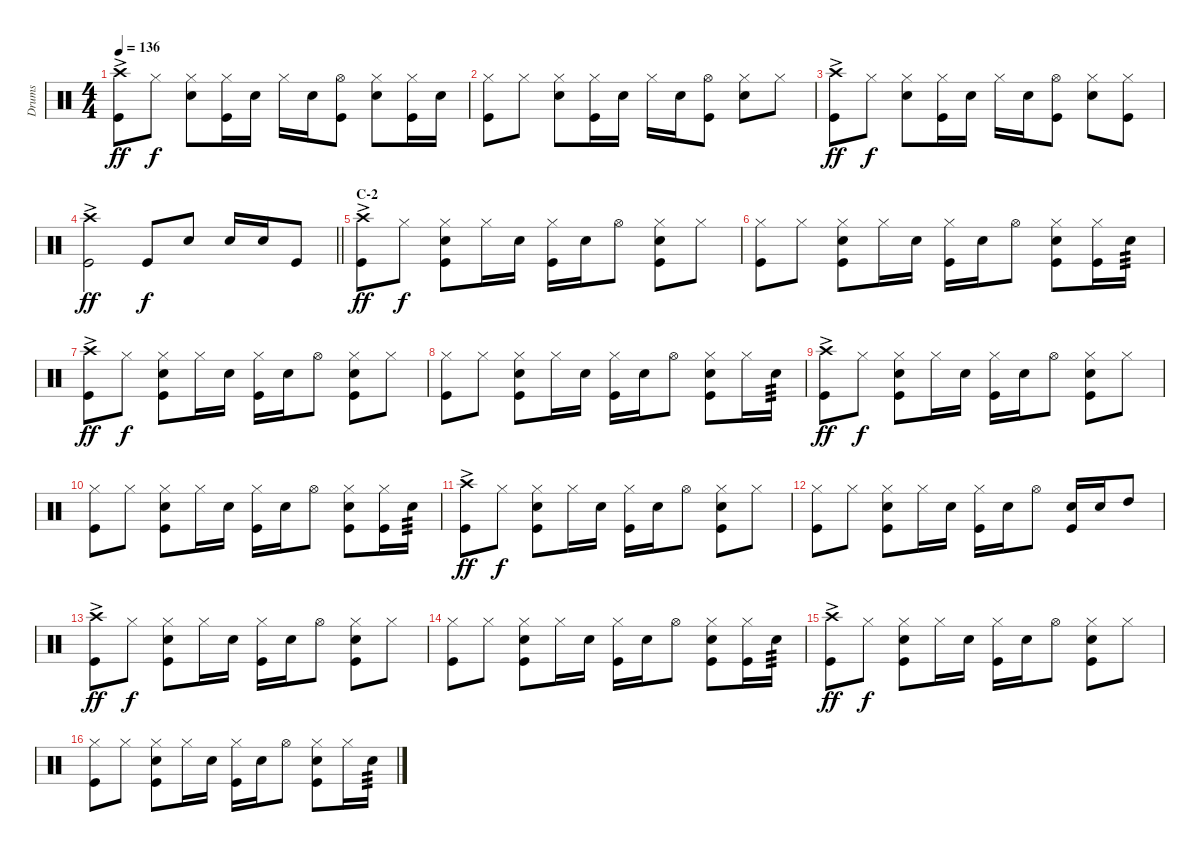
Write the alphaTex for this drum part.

\track ("Drums" "Drums") {instrument percussion}
\staff {score}
\articulation defaults
\ts (4 4)
\tempo 136
\clef neutral
\ks c
("Crash high (hit)"{ac} "Kick (hit)").8{dy ff} "Hi-Hat (closed)".8{dy f} ("Hi-Hat (closed)" "Snare (hit) 2").8 ("Hi-Hat (closed)" "Kick (hit)").16 "Snare (hit) 2".16 "Hi-Hat (closed)".16 "Snare (hit) 2".16 ("Hi-Hat (open)" "Kick (hit)").8 ("Hi-Hat (closed)" "Snare (hit) 2").8 ("Hi-Hat (closed)" "Kick (hit)").16 "Snare (hit) 2".16 |
("Hi-Hat (closed)" "Kick (hit)").8 "Hi-Hat (closed)".8 ("Hi-Hat (closed)" "Snare (hit) 2").8 ("Hi-Hat (closed)" "Kick (hit)").16 "Snare (hit) 2".16 "Hi-Hat (closed)".16 "Snare (hit) 2".16 ("Hi-Hat (open)" "Kick (hit)").8 ("Hi-Hat (closed)" "Snare (hit) 2").8 "Hi-Hat (closed)".8 |
("Crash high (hit)"{ac} "Kick (hit)").8{dy ff} "Hi-Hat (closed)".8{dy f} ("Hi-Hat (closed)" "Snare (hit) 2").8 ("Hi-Hat (closed)" "Kick (hit)").16 "Snare (hit) 2".16 "Hi-Hat (closed)".16 "Snare (hit) 2".16 ("Hi-Hat (open)" "Kick (hit)").8 ("Hi-Hat (closed)" "Snare (hit) 2").8 ("Hi-Hat (closed)" "Kick (hit)").8 |
\barLineRight lightlight
("Crash high (hit)"{ac} "Kick (hit)").2{dy ff} "Kick (hit)".8{dy f} "Snare (hit) 2".8 "Snare (hit) 2".16 "Snare (hit) 2".16 "Kick (hit)".8 |
\section ("" "C-2")
("Crash high (hit)"{ac} "Kick (hit)").8{dy ff} "Hi-Hat (closed)".8{dy f} ("Hi-Hat (closed)" "Snare (hit) 2" "Kick (hit)").8 "Hi-Hat (closed)".16 "Snare (hit) 2".16 ("Hi-Hat (closed)" "Kick (hit)").16 "Snare (hit) 2".16 "Hi-Hat (open)".8 ("Hi-Hat (closed)" "Snare (hit) 2" "Kick (hit)").8 "Hi-Hat (closed)".8 |
("Hi-Hat (closed)" "Kick (hit)").8 "Hi-Hat (closed)".8 ("Hi-Hat (closed)" "Snare (hit) 2" "Kick (hit)").8 "Hi-Hat (closed)".16 "Snare (hit) 2".16 ("Hi-Hat (closed)" "Kick (hit)").16 "Snare (hit) 2".16 "Hi-Hat (open)".8 ("Hi-Hat (closed)" "Snare (hit) 2" "Kick (hit)").8 ("Hi-Hat (closed)" "Kick (hit)").16 "Snare (hit) 2".16{tp 3} |
("Crash high (hit)"{ac} "Kick (hit)").8{dy ff} "Hi-Hat (closed)".8{dy f} ("Hi-Hat (closed)" "Snare (hit) 2" "Kick (hit)").8 "Hi-Hat (closed)".16 "Snare (hit) 2".16 ("Hi-Hat (closed)" "Kick (hit)").16 "Snare (hit) 2".16 "Hi-Hat (open)".8 ("Hi-Hat (closed)" "Snare (hit) 2" "Kick (hit)").8 "Hi-Hat (closed)".8 |
("Hi-Hat (closed)" "Kick (hit)").8 "Hi-Hat (closed)".8 ("Hi-Hat (closed)" "Snare (hit) 2" "Kick (hit)").8 "Hi-Hat (closed)".16 "Snare (hit) 2".16 ("Hi-Hat (closed)" "Kick (hit)").16 "Snare (hit) 2".16 "Hi-Hat (open)".8 ("Hi-Hat (closed)" "Snare (hit) 2" "Kick (hit)").8 "Hi-Hat (closed)".16 "Snare (hit) 2".16{tp 3} |
("Crash high (hit)"{ac} "Kick (hit)").8{dy ff} "Hi-Hat (closed)".8{dy f} ("Hi-Hat (closed)" "Snare (hit) 2" "Kick (hit)").8 "Hi-Hat (closed)".16 "Snare (hit) 2".16 ("Hi-Hat (closed)" "Kick (hit)").16 "Snare (hit) 2".16 "Hi-Hat (open)".8 ("Hi-Hat (closed)" "Snare (hit) 2" "Kick (hit)").8 "Hi-Hat (closed)".8 |
("Hi-Hat (closed)" "Kick (hit)").8 "Hi-Hat (closed)".8 ("Hi-Hat (closed)" "Snare (hit) 2" "Kick (hit)").8 "Hi-Hat (closed)".16 "Snare (hit) 2".16 ("Hi-Hat (closed)" "Kick (hit)").16 "Snare (hit) 2".16 "Hi-Hat (open)".8 ("Hi-Hat (closed)" "Snare (hit) 2" "Kick (hit)").8 ("Hi-Hat (closed)" "Kick (hit)").16 "Snare (hit) 2".16{tp 3} |
("Crash high (hit)"{ac} "Kick (hit)").8{dy ff} "Hi-Hat (closed)".8{dy f} ("Hi-Hat (closed)" "Snare (hit) 2" "Kick (hit)").8 "Hi-Hat (closed)".16 "Snare (hit) 2".16 ("Hi-Hat (closed)" "Kick (hit)").16 "Snare (hit) 2".16 "Hi-Hat (open)".8 ("Hi-Hat (closed)" "Snare (hit) 2" "Kick (hit)").8 "Hi-Hat (closed)".8 |
("Hi-Hat (closed)" "Kick (hit)").8 "Hi-Hat (closed)".8 ("Hi-Hat (closed)" "Snare (hit) 2" "Kick (hit)").8 "Hi-Hat (closed)".16 "Snare (hit) 2".16 ("Hi-Hat (closed)" "Kick (hit)").16 "Snare (hit) 2".16 "Hi-Hat (open)".8 ("Kick (hit)" "Snare (hit) 2").16 "Snare (hit) 2".16 "High Tom (hit)".8 |
("Crash high (hit)"{ac} "Kick (hit)").8{dy ff} "Hi-Hat (closed)".8{dy f} ("Hi-Hat (closed)" "Snare (hit) 2" "Kick (hit)").8 "Hi-Hat (closed)".16 "Snare (hit) 2".16 ("Hi-Hat (closed)" "Kick (hit)").16 "Snare (hit) 2".16 "Hi-Hat (open)".8 ("Hi-Hat (closed)" "Snare (hit) 2" "Kick (hit)").8 "Hi-Hat (closed)".8 |
("Hi-Hat (closed)" "Kick (hit)").8 "Hi-Hat (closed)".8 ("Hi-Hat (closed)" "Snare (hit) 2" "Kick (hit)").8 "Hi-Hat (closed)".16 "Snare (hit) 2".16 ("Hi-Hat (closed)" "Kick (hit)").16 "Snare (hit) 2".16 "Hi-Hat (open)".8 ("Hi-Hat (closed)" "Snare (hit) 2" "Kick (hit)").8 ("Hi-Hat (closed)" "Kick (hit)").16 "Snare (hit) 2".16{tp 3} |
("Crash high (hit)"{ac} "Kick (hit)").8{dy ff} "Hi-Hat (closed)".8{dy f} ("Hi-Hat (closed)" "Snare (hit) 2" "Kick (hit)").8 "Hi-Hat (closed)".16 "Snare (hit) 2".16 ("Hi-Hat (closed)" "Kick (hit)").16 "Snare (hit) 2".16 "Hi-Hat (open)".8 ("Hi-Hat (closed)" "Snare (hit) 2" "Kick (hit)").8 "Hi-Hat (closed)".8 |
("Hi-Hat (closed)" "Kick (hit)").8 "Hi-Hat (closed)".8 ("Hi-Hat (closed)" "Snare (hit) 2" "Kick (hit)").8 "Hi-Hat (closed)".16 "Snare (hit) 2".16 ("Hi-Hat (closed)" "Kick (hit)").16 "Snare (hit) 2".16 "Hi-Hat (open)".8 ("Hi-Hat (closed)" "Snare (hit) 2" "Kick (hit)").8 "Hi-Hat (closed)".16 "Snare (hit) 2".16{tp 3}
